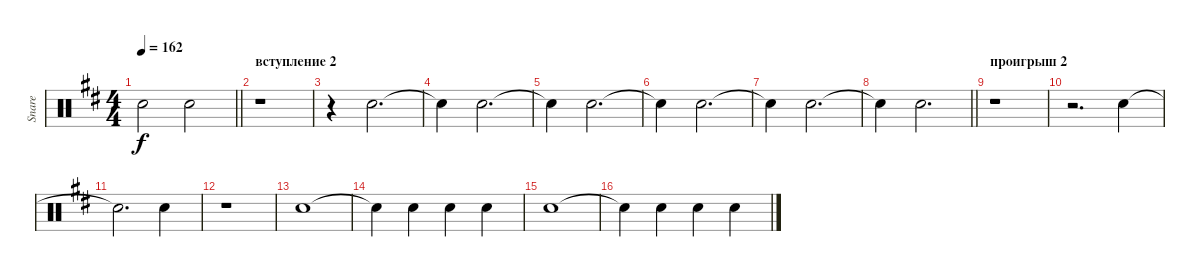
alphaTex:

\track ("Snare" "Snare") {instrument percussion}
\staff {score}
\articulation defaults
\ts (4 4)
\tempo 162
\clef neutral
\barLineRight lightlight
\ks bminor "Electric Snare (hit)".2{dy f} "Electric Snare (hit)".2
|
\section ("" "вступление 2")
r.1 |
r.4 "Electric Snare (hit)".2{d} |
"Electric Snare (hit)"{t}.4 "Electric Snare (hit)".2{d} |
"Electric Snare (hit)"{t}.4 "Electric Snare (hit)".2{d} |
"Electric Snare (hit)"{t}.4 "Electric Snare (hit)".2{d} |
"Electric Snare (hit)"{t}.4 "Electric Snare (hit)".2{d} |
\barLineRight lightlight "Electric Snare (hit)"{t}.4 "Electric Snare (hit)".2{d}
|
\section ("" "проигрыш 2")
r.1 |
r.2{d} "Electric Snare (hit)".4 |
"Electric Snare (hit)"{t}.2{d} "Electric Snare (hit)".4 |
r.1 |
"Electric Snare (hit)".1 |
"Electric Snare (hit)"{t}.4 "Electric Snare (hit)".4 "Electric Snare (hit)".4 "Electric Snare (hit)".4 |
"Electric Snare (hit)".1 |
"Electric Snare (hit)"{t}.4 "Electric Snare (hit)".4 "Electric Snare (hit)".4 "Electric Snare (hit)".4
